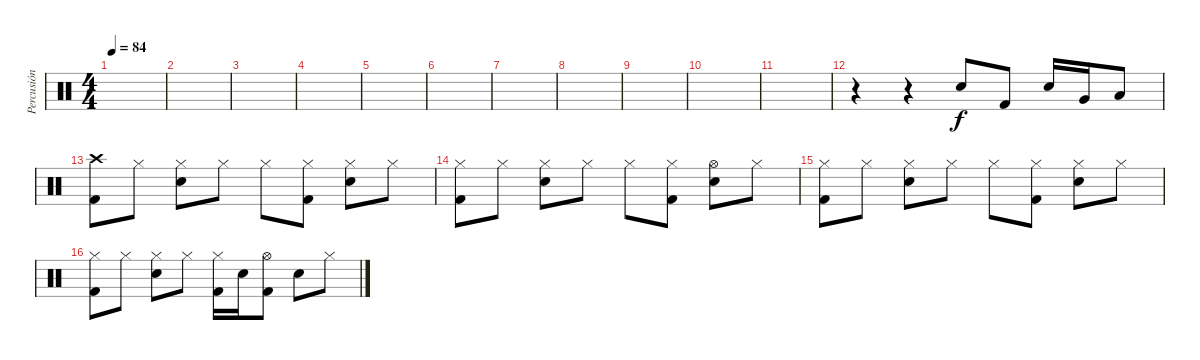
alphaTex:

\track ("Percusión" "Percusión") {instrument percussion}
\staff {score}
\articulation defaults
\ts (4 4)
\tempo 84
\clef neutral
\ks c
|
|
|
|
|
|
|
|
|
|
|
r.4 r.4 "Snare (hit) 2".8 "Kick (hit) 2".8 "Snare (hit) 2".16 "Very Low Tom (hit)".16 "Low Tom (hit)".8 |
("Crash high (hit)" "Kick (hit) 2").8 "Hi-Hat (closed)".8 ("Hi-Hat (closed)" "Electric Snare (hit)").8 "Hi-Hat (closed)".8 "Hi-Hat (closed)".8 ("Hi-Hat (closed)" "Kick (hit) 2").8 ("Hi-Hat (closed)" "Electric Snare (hit)").8 "Hi-Hat (closed)".8 |
("Hi-Hat (closed)" "Kick (hit) 2").8 "Hi-Hat (closed)".8 ("Hi-Hat (closed)" "Electric Snare (hit)").8 "Hi-Hat (closed)".8 "Hi-Hat (closed)".8 ("Hi-Hat (closed)" "Kick (hit) 2").8 ("Hi-Hat (open)" "Electric Snare (hit)").8 "Hi-Hat (closed)".8 |
("Hi-Hat (closed)" "Kick (hit) 2").8 "Hi-Hat (closed)".8 ("Hi-Hat (closed)" "Electric Snare (hit)").8 "Hi-Hat (closed)".8 "Hi-Hat (closed)".8 ("Hi-Hat (closed)" "Kick (hit) 2").8 ("Hi-Hat (closed)" "Electric Snare (hit)").8 "Hi-Hat (closed)".8 |
("Hi-Hat (closed)" "Kick (hit) 2").8 "Hi-Hat (closed)".8 ("Hi-Hat (closed)" "Electric Snare (hit)").8 "Hi-Hat (closed)".8 ("Hi-Hat (closed)" "Kick (hit) 2").16 "Electric Snare (hit)".16 ("Hi-Hat (open)" "Kick (hit) 2").8 "Electric Snare (hit)".8 "Hi-Hat (closed)".8
